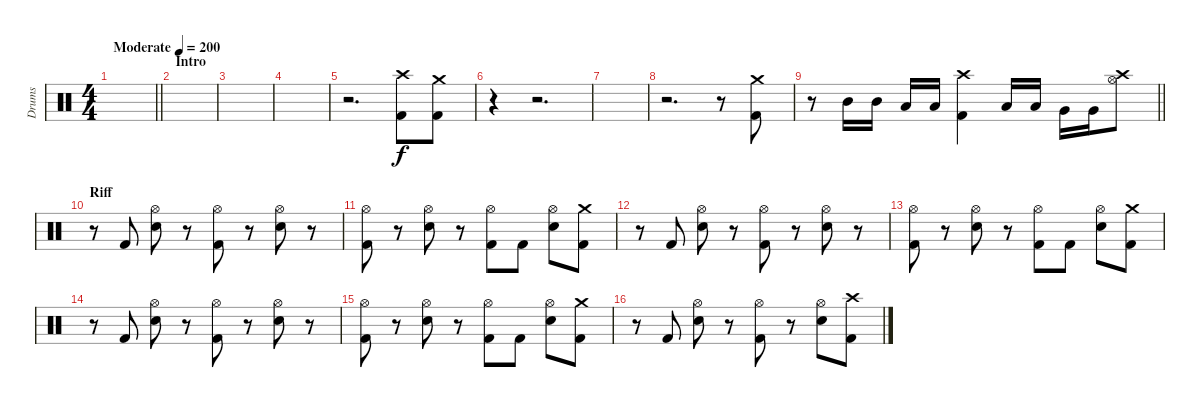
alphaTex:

\track ("Drums" "Drums") {instrument percussion}
\staff {score}
\articulation defaults
\ts (4 4)
\tempo (200 "Moderate")
\clef neutral
\barLineRight lightlight
\ks c
|
\section ("" "Intro")
|
|
|
r.2{d} ("Crash high (hit)" "Kick (hit) 2").8 ("Crash medium (hit)" "Kick (hit) 2").8 |
r.4 r.2{d} |
|
r.2{d} r.8 ("Crash medium (hit)" "Kick (hit) 2").8 |
\barLineRight lightlight
r.8 "Mid Tom (hit)".16 "Mid Tom (hit)".16 "Low Tom (hit)".16 "Low Tom (hit)".16 ("Crash high (hit)" "Kick (hit) 2").4 "Low Tom (hit)".16 "Low Tom (hit)".16 "Very Low Tom (hit)".16 "Very Low Tom (hit)".16 ("Crash high (hit)" "Hi-Hat (open)").8 |
\section ("" "Riff")
r.8 "Kick (hit) 2".8 ("Hi-Hat (open)" "Snare (hit) 2").8 r.8 ("Hi-Hat (open)" "Kick (hit) 2").8 r.8 ("Hi-Hat (open)" "Snare (hit) 2").8 r.8 |
("Hi-Hat (open)" "Kick (hit) 2").8 r.8 ("Hi-Hat (open)" "Snare (hit) 2").8 r.8 ("Hi-Hat (open)" "Kick (hit) 2").8 "Kick (hit) 2".8 ("Hi-Hat (open)" "Snare (hit) 2").8 ("Crash medium (hit)" "Kick (hit) 2").8 |
r.8 "Kick (hit) 2".8 ("Hi-Hat (open)" "Snare (hit) 2").8 r.8 ("Hi-Hat (open)" "Kick (hit) 2").8 r.8 ("Hi-Hat (open)" "Snare (hit) 2").8 r.8 |
("Hi-Hat (open)" "Kick (hit) 2").8 r.8 ("Hi-Hat (open)" "Snare (hit) 2").8 r.8 ("Hi-Hat (open)" "Kick (hit) 2").8 "Kick (hit) 2".8 ("Hi-Hat (open)" "Snare (hit) 2").8 ("Crash medium (hit)" "Kick (hit) 2").8 |
r.8 "Kick (hit) 2".8 ("Hi-Hat (open)" "Snare (hit) 2").8 r.8 ("Hi-Hat (open)" "Kick (hit) 2").8 r.8 ("Hi-Hat (open)" "Snare (hit) 2").8 r.8 |
("Hi-Hat (open)" "Kick (hit) 2").8 r.8 ("Hi-Hat (open)" "Snare (hit) 2").8 r.8 ("Hi-Hat (open)" "Kick (hit) 2").8 "Kick (hit) 2".8 ("Hi-Hat (open)" "Snare (hit) 2").8 ("Crash medium (hit)" "Kick (hit) 2").8 |
r.8 "Kick (hit) 2".8 ("Hi-Hat (open)" "Snare (hit) 2").8 r.8 ("Hi-Hat (open)" "Kick (hit) 2").8 r.8 ("Hi-Hat (open)" "Snare (hit) 2").8 ("Crash high (hit)" "Kick (hit) 2").8
